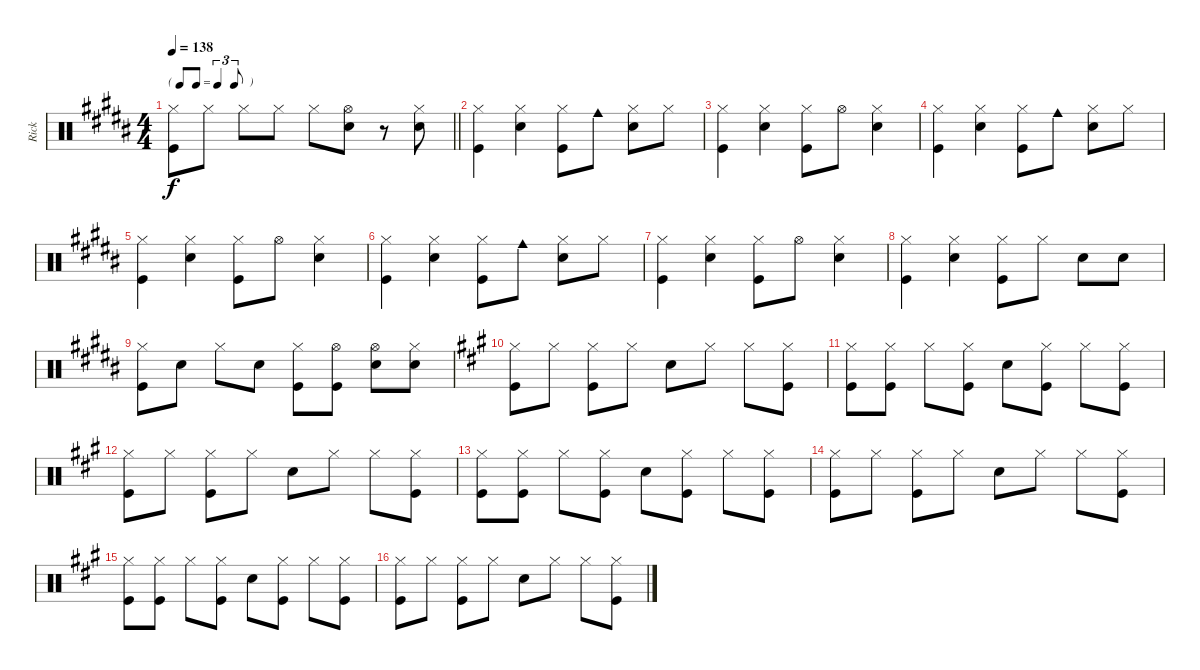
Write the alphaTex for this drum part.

\track ("Rick" "Rick") {instrument percussion}
\staff {score}
\articulation defaults
\ts (4 4)
\tf triplet8th
\tempo 138
\clef neutral
\barLineRight lightlight
\ks b
("Hi-Hat (closed)" "Kick (hit)").8{dy f} "Hi-Hat (closed)".8 "Hi-Hat (closed)".8 "Hi-Hat (closed)".8 "Hi-Hat (closed)".8 ("Hi-Hat (open)" "Snare (hit) 2").8 r.8 ("Hi-Hat (closed)" "Snare (hit) 2").8 |
("Hi-Hat (closed)" "Kick (hit)").4 ("Hi-Hat (closed)" "Snare (hit) 2").4 ("Hi-Hat (closed)" "Kick (hit)").8 "Cowbell medium (hit)".8 ("Hi-Hat (closed)" "Snare (hit) 2").8 "Hi-Hat (closed)".8 |
("Hi-Hat (closed)" "Kick (hit)").4 ("Hi-Hat (closed)" "Snare (hit) 2").4 ("Hi-Hat (closed)" "Kick (hit)").8 "Hi-Hat (open)".8 ("Hi-Hat (closed)" "Snare (hit) 2").4 |
("Hi-Hat (closed)" "Kick (hit)").4 ("Hi-Hat (closed)" "Snare (hit) 2").4 ("Hi-Hat (closed)" "Kick (hit)").8 "Cowbell medium (hit)".8 ("Hi-Hat (closed)" "Snare (hit) 2").8 "Hi-Hat (closed)".8 |
("Hi-Hat (closed)" "Kick (hit)").4 ("Hi-Hat (closed)" "Snare (hit) 2").4 ("Hi-Hat (closed)" "Kick (hit)").8 "Hi-Hat (open)".8 ("Hi-Hat (closed)" "Snare (hit) 2").4 |
("Hi-Hat (closed)" "Kick (hit)").4 ("Hi-Hat (closed)" "Snare (hit) 2").4 ("Hi-Hat (closed)" "Kick (hit)").8 "Cowbell medium (hit)".8 ("Hi-Hat (closed)" "Snare (hit) 2").8 "Hi-Hat (closed)".8 |
("Hi-Hat (closed)" "Kick (hit)").4 ("Hi-Hat (closed)" "Snare (hit) 2").4 ("Hi-Hat (closed)" "Kick (hit)").8 "Hi-Hat (open)".8 ("Hi-Hat (closed)" "Snare (hit) 2").4 |
("Hi-Hat (closed)" "Kick (hit)").4 ("Hi-Hat (closed)" "Snare (hit) 2").4 ("Hi-Hat (closed)" "Kick (hit)").8 "Hi-Hat (closed)".8 "Snare (hit) 2".8 "Snare (hit) 2".8 |
("Hi-Hat (closed)" "Kick (hit)").8 "Snare (hit) 2".8 "Hi-Hat (closed)".8 "Snare (hit) 2".8 ("Hi-Hat (closed)" "Kick (hit)").8 ("Hi-Hat (open)" "Kick (hit)").8 ("Hi-Hat (open)" "Snare (hit) 2").8 ("Hi-Hat (closed)" "Snare (hit) 2").8 |
\ks a
("Hi-Hat (closed)" "Kick (hit)").8 "Hi-Hat (closed)".8 ("Hi-Hat (closed)" "Kick (hit)").8 "Hi-Hat (closed)".8 "Snare (hit) 2".8 "Hi-Hat (closed)".8 "Hi-Hat (closed)".8 ("Hi-Hat (closed)" "Kick (hit)").8 |
("Hi-Hat (closed)" "Kick (hit)").8 ("Hi-Hat (closed)" "Kick (hit)").8 "Hi-Hat (closed)".8 ("Hi-Hat (closed)" "Kick (hit)").8 "Snare (hit) 2".8 ("Hi-Hat (closed)" "Kick (hit)").8 "Hi-Hat (closed)".8 ("Hi-Hat (closed)" "Kick (hit)").8 |
("Hi-Hat (closed)" "Kick (hit)").8 "Hi-Hat (closed)".8 ("Hi-Hat (closed)" "Kick (hit)").8 "Hi-Hat (closed)".8 "Snare (hit) 2".8 "Hi-Hat (closed)".8 "Hi-Hat (closed)".8 ("Hi-Hat (closed)" "Kick (hit)").8 |
("Hi-Hat (closed)" "Kick (hit)").8 ("Hi-Hat (closed)" "Kick (hit)").8 "Hi-Hat (closed)".8 ("Hi-Hat (closed)" "Kick (hit)").8 "Snare (hit) 2".8 ("Hi-Hat (closed)" "Kick (hit)").8 "Hi-Hat (closed)".8 ("Hi-Hat (closed)" "Kick (hit)").8 |
("Hi-Hat (closed)" "Kick (hit)").8 "Hi-Hat (closed)".8 ("Hi-Hat (closed)" "Kick (hit)").8 "Hi-Hat (closed)".8 "Snare (hit) 2".8 "Hi-Hat (closed)".8 "Hi-Hat (closed)".8 ("Hi-Hat (closed)" "Kick (hit)").8 |
("Hi-Hat (closed)" "Kick (hit)").8 ("Hi-Hat (closed)" "Kick (hit)").8 "Hi-Hat (closed)".8 ("Hi-Hat (closed)" "Kick (hit)").8 "Snare (hit) 2".8 ("Hi-Hat (closed)" "Kick (hit)").8 "Hi-Hat (closed)".8 ("Hi-Hat (closed)" "Kick (hit)").8 |
("Hi-Hat (closed)" "Kick (hit)").8 "Hi-Hat (closed)".8 ("Hi-Hat (closed)" "Kick (hit)").8 "Hi-Hat (closed)".8 "Snare (hit) 2".8 "Hi-Hat (closed)".8 "Hi-Hat (closed)".8 ("Hi-Hat (closed)" "Kick (hit)").8
